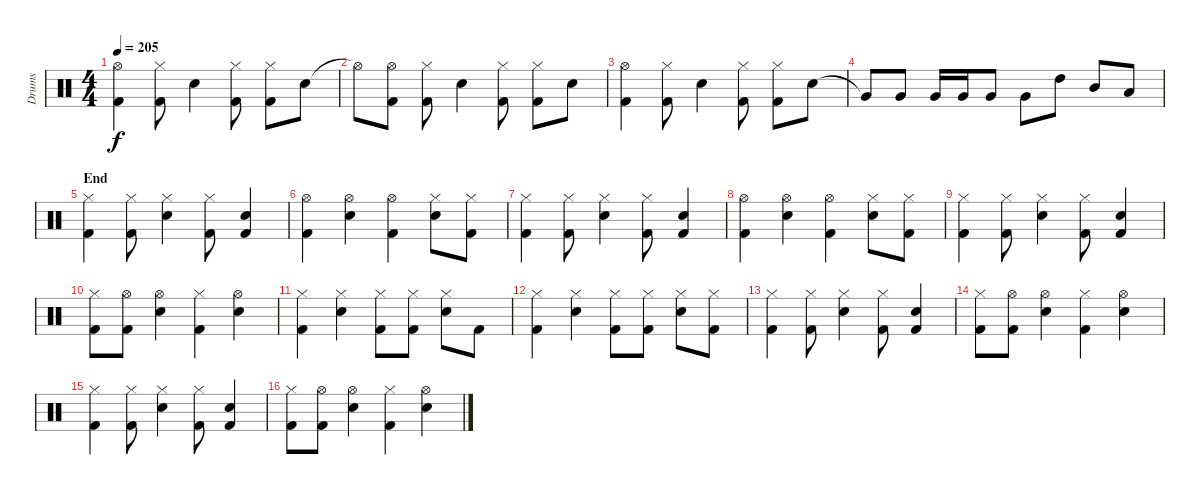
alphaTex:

\track ("Drums" "Drums") {instrument percussion}
\staff {score}
\articulation defaults
\ts (4 4)
\tempo 205
\clef neutral
\ks c
("Hi-Hat (open)" "Kick (hit) 2").4{dy f} ("Hi-Hat (closed)" "Kick (hit) 2").8 "Electric Snare (hit)".4 ("Hi-Hat (closed)" "Kick (hit) 2").8 ("Hi-Hat (closed)" "Kick (hit) 2").8 "Electric Snare (hit)".8 |
"Hi-Hat (open)"{t}.8 ("Hi-Hat (open)" "Kick (hit) 2").8 ("Hi-Hat (closed)" "Kick (hit) 2").8 "Electric Snare (hit)".4 ("Hi-Hat (closed)" "Kick (hit) 2").8 ("Hi-Hat (closed)" "Kick (hit) 2").8 "Electric Snare (hit)".8 |
("Hi-Hat (open)" "Kick (hit) 2").4 ("Hi-Hat (closed)" "Kick (hit) 2").8 "Electric Snare (hit)".4 ("Hi-Hat (closed)" "Kick (hit) 2").8 ("Hi-Hat (closed)" "Kick (hit) 2").8 "Electric Snare (hit)".8 |
"Very Low Tom (hit)"{t}.8 "Very Low Tom (hit)".8 "Very Low Tom (hit)".16 "Very Low Tom (hit)".16 "Very Low Tom (hit)".8 "Very Low Tom (hit)".8 "High Tom (hit)".8 "Mid Tom (hit)".8 "Low Tom (hit)".8 |
\section ("" "End")
("Hi-Hat (closed)" "Kick (hit) 2").4 ("Hi-Hat (closed)" "Kick (hit) 2").8 ("Hi-Hat (closed)" "Electric Snare (hit)").4 ("Hi-Hat (closed)" "Kick (hit) 2").8 ("Electric Snare (hit)" "Kick (hit) 2").4 |
("Hi-Hat (open)" "Kick (hit) 2").4 ("Hi-Hat (open)" "Electric Snare (hit)").4 ("Hi-Hat (open)" "Kick (hit) 2").4 ("Hi-Hat (closed)" "Electric Snare (hit)").8 ("Hi-Hat (closed)" "Kick (hit) 2").8 |
("Hi-Hat (closed)" "Kick (hit) 2").4 ("Hi-Hat (closed)" "Kick (hit) 2").8 ("Hi-Hat (closed)" "Electric Snare (hit)").4 ("Hi-Hat (closed)" "Kick (hit) 2").8 ("Electric Snare (hit)" "Kick (hit) 2").4 |
("Hi-Hat (open)" "Kick (hit) 2").4 ("Hi-Hat (open)" "Electric Snare (hit)").4 ("Hi-Hat (open)" "Kick (hit) 2").4 ("Hi-Hat (closed)" "Electric Snare (hit)").8 ("Hi-Hat (closed)" "Kick (hit) 2").8 |
("Hi-Hat (closed)" "Kick (hit) 2").4 ("Hi-Hat (closed)" "Kick (hit) 2").8 ("Hi-Hat (closed)" "Electric Snare (hit)").4 ("Hi-Hat (closed)" "Kick (hit) 2").8 ("Electric Snare (hit)" "Kick (hit) 2").4 |
("Hi-Hat (closed)" "Kick (hit) 2").8 ("Hi-Hat (open)" "Kick (hit) 2").8 ("Hi-Hat (open)" "Electric Snare (hit)").4 ("Hi-Hat (closed)" "Kick (hit) 2").4 ("Hi-Hat (open)" "Electric Snare (hit)").4 |
("Hi-Hat (closed)" "Kick (hit) 2").4 ("Hi-Hat (closed)" "Electric Snare (hit)").4 ("Hi-Hat (closed)" "Kick (hit) 2").8 ("Hi-Hat (closed)" "Kick (hit) 2").8 ("Hi-Hat (closed)" "Electric Snare (hit)").8 "Kick (hit) 2".8 |
("Hi-Hat (closed)" "Kick (hit) 2").4 ("Hi-Hat (closed)" "Electric Snare (hit)").4 ("Hi-Hat (closed)" "Kick (hit) 2").8 ("Hi-Hat (closed)" "Kick (hit) 2").8 ("Electric Snare (hit)" "Hi-Hat (closed)").8 ("Hi-Hat (closed)" "Kick (hit) 2").8 |
("Hi-Hat (closed)" "Kick (hit) 2").4 ("Hi-Hat (closed)" "Kick (hit) 2").8 ("Hi-Hat (closed)" "Electric Snare (hit)").4 ("Hi-Hat (closed)" "Kick (hit) 2").8 ("Electric Snare (hit)" "Kick (hit) 2").4 |
("Hi-Hat (closed)" "Kick (hit) 2").8 ("Hi-Hat (open)" "Kick (hit) 2").8 ("Hi-Hat (open)" "Electric Snare (hit)").4 ("Hi-Hat (closed)" "Kick (hit) 2").4 ("Hi-Hat (open)" "Electric Snare (hit)").4 |
("Hi-Hat (closed)" "Kick (hit) 2").4 ("Hi-Hat (closed)" "Kick (hit) 2").8 ("Hi-Hat (closed)" "Electric Snare (hit)").4 ("Hi-Hat (closed)" "Kick (hit) 2").8 ("Electric Snare (hit)" "Kick (hit) 2").4 |
("Hi-Hat (closed)" "Kick (hit) 2").8 ("Hi-Hat (open)" "Kick (hit) 2").8 ("Hi-Hat (open)" "Electric Snare (hit)").4 ("Hi-Hat (closed)" "Kick (hit) 2").4 ("Hi-Hat (open)" "Electric Snare (hit)").4
